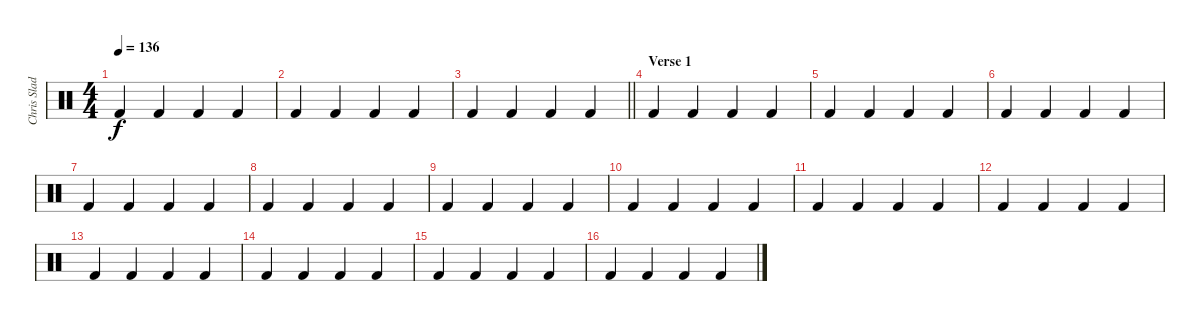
\track ("Chris Slade" "Chris Slad") {instrument percussion}
\staff {score}
\articulation defaults
\ts (4 4)
\tempo 136
\clef neutral
\ks c "Kick (hit) 2".4{dy f} "Kick (hit) 2".4 "Kick (hit) 2".4 "Kick (hit) 2".4
|
"Kick (hit) 2".4 "Kick (hit) 2".4 "Kick (hit) 2".4 "Kick (hit) 2".4 |
\barLineRight lightlight "Kick (hit) 2".4 "Kick (hit) 2".4 "Kick (hit) 2".4 "Kick (hit) 2".4
|
\section ("" "Verse 1")
"Kick (hit) 2".4 "Kick (hit) 2".4 "Kick (hit) 2".4 "Kick (hit) 2".4 |
"Kick (hit) 2".4 "Kick (hit) 2".4 "Kick (hit) 2".4 "Kick (hit) 2".4 |
"Kick (hit) 2".4 "Kick (hit) 2".4 "Kick (hit) 2".4 "Kick (hit) 2".4 |
"Kick (hit) 2".4 "Kick (hit) 2".4 "Kick (hit) 2".4 "Kick (hit) 2".4 |
"Kick (hit) 2".4 "Kick (hit) 2".4 "Kick (hit) 2".4 "Kick (hit) 2".4 |
"Kick (hit) 2".4 "Kick (hit) 2".4 "Kick (hit) 2".4 "Kick (hit) 2".4 |
"Kick (hit) 2".4 "Kick (hit) 2".4 "Kick (hit) 2".4 "Kick (hit) 2".4 |
"Kick (hit) 2".4 "Kick (hit) 2".4 "Kick (hit) 2".4 "Kick (hit) 2".4 |
"Kick (hit) 2".4 "Kick (hit) 2".4 "Kick (hit) 2".4 "Kick (hit) 2".4 |
"Kick (hit) 2".4 "Kick (hit) 2".4 "Kick (hit) 2".4 "Kick (hit) 2".4 |
"Kick (hit) 2".4 "Kick (hit) 2".4 "Kick (hit) 2".4 "Kick (hit) 2".4 |
"Kick (hit) 2".4 "Kick (hit) 2".4 "Kick (hit) 2".4 "Kick (hit) 2".4 |
"Kick (hit) 2".4 "Kick (hit) 2".4 "Kick (hit) 2".4 "Kick (hit) 2".4
